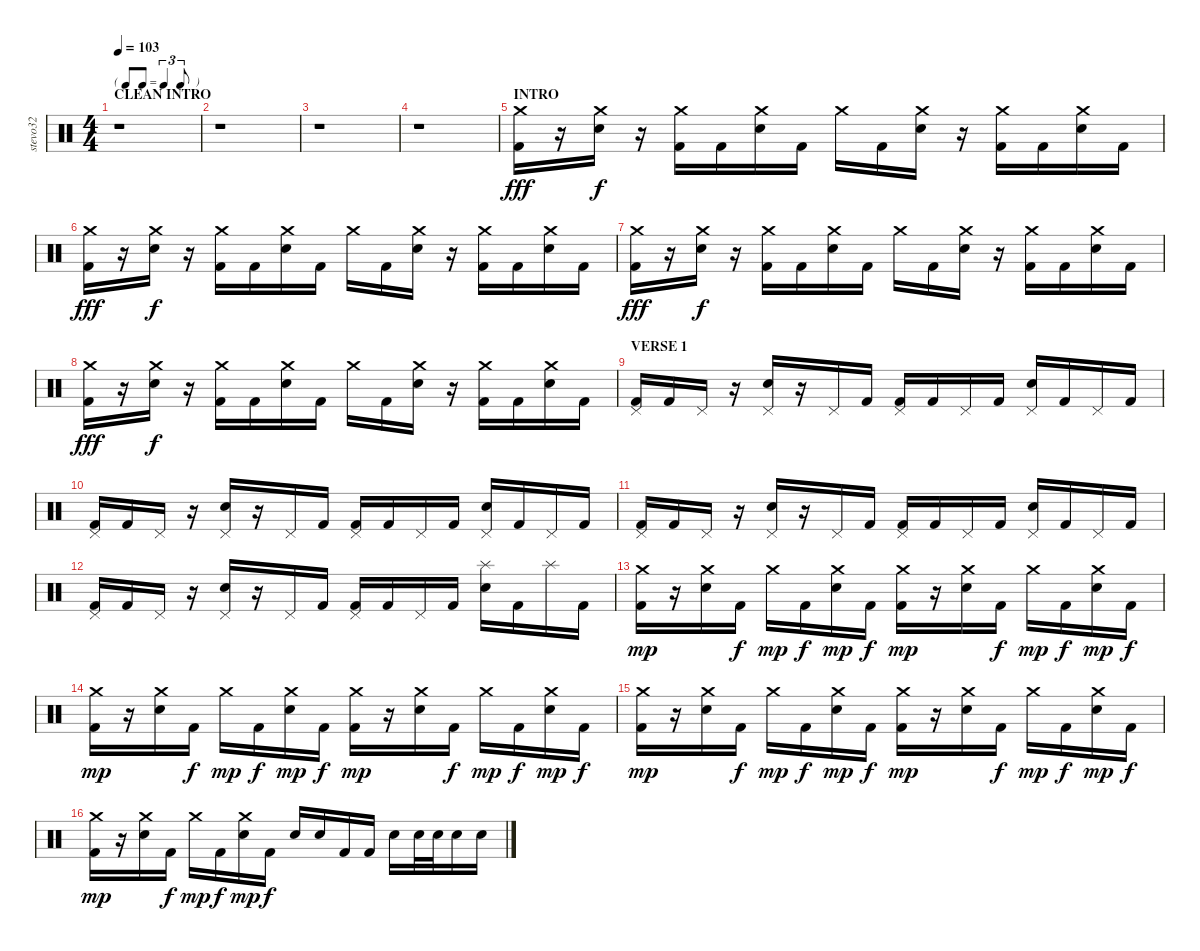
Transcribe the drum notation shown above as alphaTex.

\track ("stevo32" "stevo32") {instrument percussion}
\staff {score}
\articulation defaults
\ts (4 4)
\tf triplet8th
\section ("" "CLEAN INTRO")
\tempo 103
\clef neutral
\ks c
r.1{dy fff} |
r.1 |
r.1 |
r.1 |
\section ("" "INTRO")
("Crash medium (hit)" "Kick (hit) 2").16 r.16 ("Crash medium (hit)" "Electric Snare (hit)").16{dy f} r.16 ("Crash medium (hit)" "Kick (hit) 2").16 "Kick (hit) 2".16 ("Crash medium (hit)" "Electric Snare (hit)").16 "Kick (hit) 2".16 "Crash medium (hit)".16 "Kick (hit) 2".16 ("Crash medium (hit)" "Electric Snare (hit)").16 r.16 ("Crash medium (hit)" "Kick (hit) 2").16 "Kick (hit) 2".16 ("Crash medium (hit)" "Electric Snare (hit)").16 "Kick (hit) 2".16 |
("Crash medium (hit)" "Kick (hit) 2").16{dy fff} r.16 ("Crash medium (hit)" "Electric Snare (hit)").16{dy f} r.16 ("Crash medium (hit)" "Kick (hit) 2").16 "Kick (hit) 2".16 ("Crash medium (hit)" "Electric Snare (hit)").16 "Kick (hit) 2".16 "Crash medium (hit)".16 "Kick (hit) 2".16 ("Crash medium (hit)" "Electric Snare (hit)").16 r.16 ("Crash medium (hit)" "Kick (hit) 2").16 "Kick (hit) 2".16 ("Crash medium (hit)" "Electric Snare (hit)").16 "Kick (hit) 2".16 |
("Crash medium (hit)" "Kick (hit) 2").16{dy fff} r.16 ("Crash medium (hit)" "Electric Snare (hit)").16{dy f} r.16 ("Crash medium (hit)" "Kick (hit) 2").16 "Kick (hit) 2".16 ("Crash medium (hit)" "Electric Snare (hit)").16 "Kick (hit) 2".16 "Crash medium (hit)".16 "Kick (hit) 2".16 ("Crash medium (hit)" "Electric Snare (hit)").16 r.16 ("Crash medium (hit)" "Kick (hit) 2").16 "Kick (hit) 2".16 ("Crash medium (hit)" "Electric Snare (hit)").16 "Kick (hit) 2".16 |
("Crash medium (hit)" "Kick (hit) 2").16{dy fff} r.16 ("Crash medium (hit)" "Electric Snare (hit)").16{dy f} r.16 ("Crash medium (hit)" "Kick (hit) 2").16 "Kick (hit) 2".16 ("Crash medium (hit)" "Electric Snare (hit)").16 "Kick (hit) 2".16 "Crash medium (hit)".16 "Kick (hit) 2".16 ("Crash medium (hit)" "Electric Snare (hit)").16 r.16 ("Crash medium (hit)" "Kick (hit) 2").16 "Kick (hit) 2".16 ("Crash medium (hit)" "Electric Snare (hit)").16 "Kick (hit) 2".16 |
\section ("" "VERSE 1")
("Pedal Hi-Hat (hit)" "Kick (hit) 2").16 "Kick (hit) 2".16 "Pedal Hi-Hat (hit)".16 r.16 ("Pedal Hi-Hat (hit)" "Electric Snare (hit)").16 r.16 "Pedal Hi-Hat (hit)".16 "Kick (hit) 2".16 ("Pedal Hi-Hat (hit)" "Kick (hit) 2").16 "Kick (hit) 2".16 "Pedal Hi-Hat (hit)".16 "Kick (hit) 2".16 ("Pedal Hi-Hat (hit)" "Electric Snare (hit)").16 "Kick (hit) 2".16 "Pedal Hi-Hat (hit)".16 "Kick (hit) 2".16 |
("Pedal Hi-Hat (hit)" "Kick (hit) 2").16 "Kick (hit) 2".16 "Pedal Hi-Hat (hit)".16 r.16 ("Pedal Hi-Hat (hit)" "Electric Snare (hit)").16 r.16 "Pedal Hi-Hat (hit)".16 "Kick (hit) 2".16 ("Pedal Hi-Hat (hit)" "Kick (hit) 2").16 "Kick (hit) 2".16 "Pedal Hi-Hat (hit)".16 "Kick (hit) 2".16 ("Pedal Hi-Hat (hit)" "Electric Snare (hit)").16 "Kick (hit) 2".16 "Pedal Hi-Hat (hit)".16 "Kick (hit) 2".16 |
("Pedal Hi-Hat (hit)" "Kick (hit) 2").16 "Kick (hit) 2".16 "Pedal Hi-Hat (hit)".16 r.16 ("Pedal Hi-Hat (hit)" "Electric Snare (hit)").16 r.16 "Pedal Hi-Hat (hit)".16 "Kick (hit) 2".16 ("Pedal Hi-Hat (hit)" "Kick (hit) 2").16 "Kick (hit) 2".16 "Pedal Hi-Hat (hit)".16 "Kick (hit) 2".16 ("Pedal Hi-Hat (hit)" "Electric Snare (hit)").16 "Kick (hit) 2".16 "Pedal Hi-Hat (hit)".16 "Kick (hit) 2".16 |
("Pedal Hi-Hat (hit)" "Kick (hit) 2").16 "Kick (hit) 2".16 "Pedal Hi-Hat (hit)".16 r.16 ("Pedal Hi-Hat (hit)" "Electric Snare (hit)").16 r.16 "Pedal Hi-Hat (hit)".16 "Kick (hit) 2".16 ("Pedal Hi-Hat (hit)" "Kick (hit) 2").16 "Kick (hit) 2".16 "Pedal Hi-Hat (hit)".16 "Kick (hit) 2".16 ("Splash (hit)" "Electric Snare (hit)").16 "Kick (hit) 2".16 "Splash (hit)".16 "Kick (hit) 2".16 |
("Crash medium (hit)" "Kick (hit) 2").16{dy mp} r.16 ("Crash medium (hit)" "Electric Snare (hit)").16 "Kick (hit) 2".16{dy f} "Crash medium (hit)".16{dy mp} "Kick (hit) 2".16{dy f} ("Crash medium (hit)" "Electric Snare (hit)").16{dy mp} "Kick (hit) 2".16{dy f} ("Crash medium (hit)" "Kick (hit) 2").16{dy mp} r.16 ("Crash medium (hit)" "Electric Snare (hit)").16 "Kick (hit) 2".16{dy f} "Crash medium (hit)".16{dy mp} "Kick (hit) 2".16{dy f} ("Crash medium (hit)" "Electric Snare (hit)").16{dy mp} "Kick (hit) 2".16{dy f} |
("Crash medium (hit)" "Kick (hit) 2").16{dy mp} r.16 ("Crash medium (hit)" "Electric Snare (hit)").16 "Kick (hit) 2".16{dy f} "Crash medium (hit)".16{dy mp} "Kick (hit) 2".16{dy f} ("Crash medium (hit)" "Electric Snare (hit)").16{dy mp} "Kick (hit) 2".16{dy f} ("Crash medium (hit)" "Kick (hit) 2").16{dy mp} r.16 ("Crash medium (hit)" "Electric Snare (hit)").16 "Kick (hit) 2".16{dy f} "Crash medium (hit)".16{dy mp} "Kick (hit) 2".16{dy f} ("Crash medium (hit)" "Electric Snare (hit)").16{dy mp} "Kick (hit) 2".16{dy f} |
("Crash medium (hit)" "Kick (hit) 2").16{dy mp} r.16 ("Crash medium (hit)" "Electric Snare (hit)").16 "Kick (hit) 2".16{dy f} "Crash medium (hit)".16{dy mp} "Kick (hit) 2".16{dy f} ("Crash medium (hit)" "Electric Snare (hit)").16{dy mp} "Kick (hit) 2".16{dy f} ("Crash medium (hit)" "Kick (hit) 2").16{dy mp} r.16 ("Crash medium (hit)" "Electric Snare (hit)").16 "Kick (hit) 2".16{dy f} "Crash medium (hit)".16{dy mp} "Kick (hit) 2".16{dy f} ("Crash medium (hit)" "Electric Snare (hit)").16{dy mp} "Kick (hit) 2".16{dy f} |
("Crash medium (hit)" "Kick (hit) 2").16{dy mp} r.16 ("Crash medium (hit)" "Electric Snare (hit)").16 "Kick (hit) 2".16{dy f} "Crash medium (hit)".16{dy mp} "Kick (hit) 2".16{dy f} ("Crash medium (hit)" "Electric Snare (hit)").16{dy mp} "Kick (hit) 2".16{dy f} "Electric Snare (hit)".16 "Electric Snare (hit)".16 "Kick (hit) 2".16 "Kick (hit) 2".16 "Electric Snare (hit)".16 "Electric Snare (hit)".32 "Electric Snare (hit)".32 "Electric Snare (hit)".16 "Electric Snare (hit)".16
